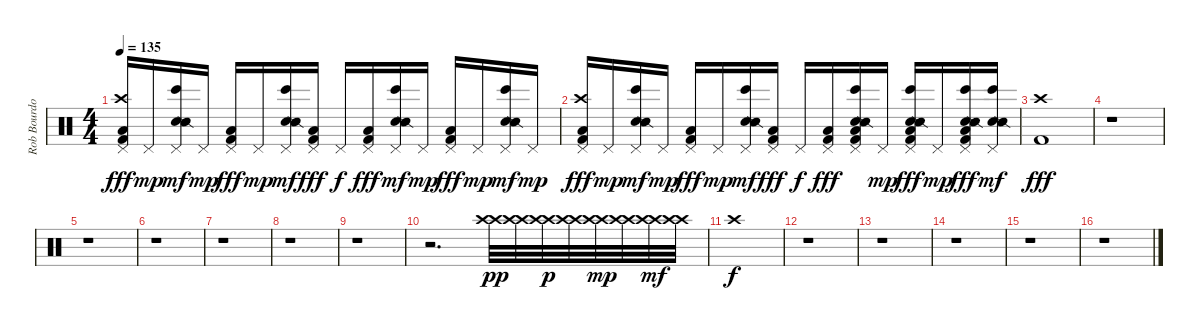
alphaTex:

\track ("Rob Bourdon - Beats & Drums" "Rob Bourdo") {instrument percussion}
\staff {score}
\articulation defaults
\ts (4 4)
\tempo 135
\clef neutral
\ks c
("Low Floor Tom (hit)" "Crash high (hit)" "Pedal Hi-Hat (hit)" "Kick (hit) 2").16{dy fff} "Pedal Hi-Hat (hit)".16{dy mp} ("Bongo High (hit)" "Electric Snare (hit)" "Snare (side stick) 2" "Pedal Hi-Hat (hit)").16{dy mf} "Pedal Hi-Hat (hit)".16{dy mp} ("Low Floor Tom (hit)" "Pedal Hi-Hat (hit)" "Kick (hit) 2").16{dy fff} "Pedal Hi-Hat (hit)".16{dy mp} ("Bongo High (hit)" "Electric Snare (hit)" "Snare (side stick) 2" "Pedal Hi-Hat (hit)").16{dy mf} ("Low Floor Tom (hit)" "Pedal Hi-Hat (hit)" "Kick (hit) 2").16{dy fff} "Pedal Hi-Hat (hit)".16{dy f} ("Low Floor Tom (hit)" "Pedal Hi-Hat (hit)" "Kick (hit) 2").16{dy fff} ("Bongo High (hit)" "Electric Snare (hit)" "Snare (side stick) 2" "Pedal Hi-Hat (hit)").16{dy mf} "Pedal Hi-Hat (hit)".16{dy mp} ("Low Floor Tom (hit)" "Pedal Hi-Hat (hit)" "Kick (hit) 2").16{dy fff} "Pedal Hi-Hat (hit)".16{dy mp} ("Bongo High (hit)" "Electric Snare (hit)" "Snare (side stick) 2" "Pedal Hi-Hat (hit)").16{dy mf} "Pedal Hi-Hat (hit)".16{dy mp} |
("Low Floor Tom (hit)" "Crash high (hit)" "Pedal Hi-Hat (hit)" "Kick (hit) 2").16{dy fff} "Pedal Hi-Hat (hit)".16{dy mp} ("Bongo High (hit)" "Electric Snare (hit)" "Snare (side stick) 2" "Pedal Hi-Hat (hit)").16{dy mf} "Pedal Hi-Hat (hit)".16{dy mp} ("Low Floor Tom (hit)" "Pedal Hi-Hat (hit)" "Kick (hit) 2").16{dy fff} "Pedal Hi-Hat (hit)".16{dy mp} ("Bongo High (hit)" "Electric Snare (hit)" "Snare (side stick) 2" "Pedal Hi-Hat (hit)").16{dy mf} ("Low Floor Tom (hit)" "Pedal Hi-Hat (hit)" "Kick (hit) 2").16{dy fff} "Pedal Hi-Hat (hit)".16{dy f} ("Low Floor Tom (hit)" "Pedal Hi-Hat (hit)" "Kick (hit) 2").16{dy fff} ("Low Floor Tom (hit)" "Bongo High (hit)" "Electric Snare (hit)" "Snare (side stick) 2" "Pedal Hi-Hat (hit)" "Kick (hit) 2").16 "Pedal Hi-Hat (hit)".16{dy mp} ("Low Floor Tom (hit)" "Bongo High (hit)" "Electric Snare (hit)" "Snare (side stick) 2" "Pedal Hi-Hat (hit)" "Kick (hit) 2").16{dy fff} "Pedal Hi-Hat (hit)".16{dy mp} ("Low Floor Tom (hit)" "Bongo High (hit)" "Electric Snare (hit)" "Snare (side stick) 2" "Pedal Hi-Hat (hit)" "Kick (hit) 2").16{dy fff} ("Bongo High (hit)" "Electric Snare (hit)" "Snare (side stick) 2" "Pedal Hi-Hat (hit)").16{dy mf} |
("Crash high (hit)" "Kick (hit) 2").1{dy fff} |
r.1 |
r.1 |
r.1 |
r.1 |
r.1 |
r.1 |
r.2{d} ("Crash high (hit)" "Crash high (hit)").32{dy pp} ("Crash high (hit)" "Crash high (hit)").32 ("Crash high (hit)" "Crash high (hit)").32{dy p} ("Crash high (hit)" "Crash high (hit)").32 ("Crash high (hit)" "Crash high (hit)").32{dy mp} ("Crash high (hit)" "Crash high (hit)").32 ("Crash high (hit)" "Crash high (hit)").32{dy mf} ("Crash high (hit)" "Crash high (hit)").32 |
"Crash high (hit)".1{dy f} |
r.1 |
r.1 |
r.1 |
r.1 |
r.1
